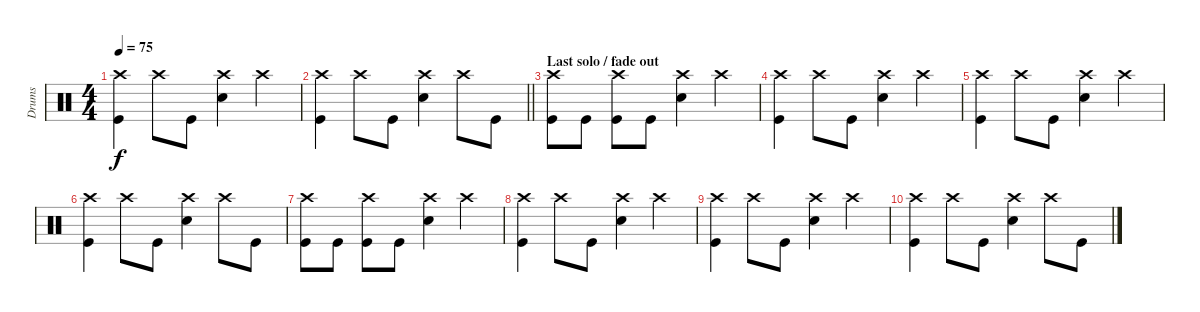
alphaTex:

\track ("Drums" "Drums") {instrument percussion}
\staff {score}
\articulation defaults
\ts (4 4)
\tempo 75
\clef neutral
\ks c
("Crash high (hit)" "Kick (hit)").4{dy f} "Crash high (hit)".8 "Kick (hit)".8 ("Crash high (hit)" "Snare (hit) 2").4 "Crash high (hit)".4 |
\barLineRight lightlight
("Crash high (hit)" "Kick (hit)").4 "Crash high (hit)".8 "Kick (hit)".8 ("Crash high (hit)" "Snare (hit) 2").4 "Crash high (hit)".8 "Kick (hit)".8 |
\section ("" "Last solo / fade out")
("Crash high (hit)" "Kick (hit)").8 "Kick (hit)".8 ("Crash high (hit)" "Kick (hit)").8 "Kick (hit)".8 ("Crash high (hit)" "Snare (hit) 2").4 "Crash high (hit)".4 |
("Crash high (hit)" "Kick (hit)").4 "Crash high (hit)".8 "Kick (hit)".8 ("Crash high (hit)" "Snare (hit) 2").4 "Crash high (hit)".4 |
("Crash high (hit)" "Kick (hit)").4 "Crash high (hit)".8 "Kick (hit)".8 ("Crash high (hit)" "Snare (hit) 2").4 "Crash high (hit)".4 |
("Crash high (hit)" "Kick (hit)").4 "Crash high (hit)".8 "Kick (hit)".8 ("Crash high (hit)" "Snare (hit) 2").4 "Crash high (hit)".8 "Kick (hit)".8 |
("Crash high (hit)" "Kick (hit)").8 "Kick (hit)".8 ("Crash high (hit)" "Kick (hit)").8 "Kick (hit)".8 ("Crash high (hit)" "Snare (hit) 2").4 "Crash high (hit)".4 |
("Crash high (hit)" "Kick (hit)").4 "Crash high (hit)".8 "Kick (hit)".8 ("Crash high (hit)" "Snare (hit) 2").4 "Crash high (hit)".4 |
("Crash high (hit)" "Kick (hit)").4 "Crash high (hit)".8 "Kick (hit)".8 ("Crash high (hit)" "Snare (hit) 2").4 "Crash high (hit)".4 |
("Crash high (hit)" "Kick (hit)").4 "Crash high (hit)".8 "Kick (hit)".8 ("Crash high (hit)" "Snare (hit) 2").4 "Crash high (hit)".8 "Kick (hit)".8
